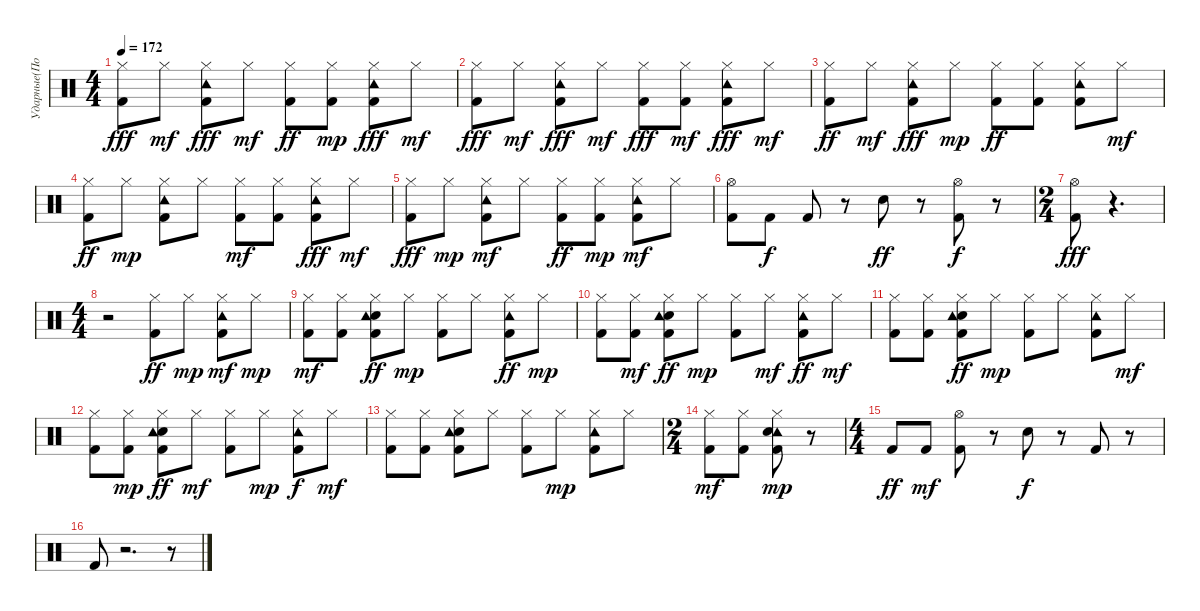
\track ("Ударные(Потапкин)" "Ударные(По") {instrument percussion}
\staff {score}
\articulation defaults
\ts (4 4)
\tempo 172
\clef neutral
\ks c
("Hi-Hat (closed)" "Kick (hit) 2").8{dy fff} "Hi-Hat (closed)".8{dy mf} ("Hi-Hat (closed)" "Kick (hit) 2" "Tambourine (hit)").8{dy fff} "Hi-Hat (closed)".8{dy mf} ("Hi-Hat (closed)" "Kick (hit) 2").8{dy ff} ("Hi-Hat (closed)" "Kick (hit) 2").8{dy mp} ("Hi-Hat (closed)" "Kick (hit) 2" "Tambourine (hit)").8{dy fff} "Hi-Hat (closed)".8{dy mf} |
("Hi-Hat (closed)" "Kick (hit) 2").8{dy fff} "Hi-Hat (closed)".8{dy mf} ("Hi-Hat (closed)" "Kick (hit) 2" "Tambourine (hit)").8{dy fff} "Hi-Hat (closed)".8{dy mf} ("Hi-Hat (closed)" "Kick (hit) 2").8{dy fff} ("Hi-Hat (closed)" "Kick (hit) 2").8{dy mf} ("Hi-Hat (closed)" "Kick (hit) 2" "Tambourine (hit)").8{dy fff} "Hi-Hat (closed)".8{dy mf} |
("Hi-Hat (closed)" "Kick (hit) 2").8{dy ff} "Hi-Hat (closed)".8{dy mf} ("Hi-Hat (closed)" "Kick (hit) 2" "Tambourine (hit)").8{dy fff} "Hi-Hat (closed)".8{dy mp} ("Hi-Hat (closed)" "Kick (hit) 2").8{dy ff} ("Hi-Hat (closed)" "Kick (hit) 2").8 ("Hi-Hat (closed)" "Tambourine (hit)" "Kick (hit) 2").8 "Hi-Hat (closed)".8{dy mf} |
("Hi-Hat (closed)" "Kick (hit) 2").8{dy ff} "Hi-Hat (closed)".8{dy mp} ("Kick (hit) 2" "Tambourine (hit)" "Hi-Hat (closed)").8 "Hi-Hat (closed)".8 ("Kick (hit) 2" "Hi-Hat (closed)").8{dy mf} ("Kick (hit) 2" "Hi-Hat (closed)").8 ("Hi-Hat (closed)" "Kick (hit) 2" "Tambourine (hit)").8{dy fff} "Hi-Hat (closed)".8{dy mf} |
("Hi-Hat (closed)" "Kick (hit) 2").8{dy fff} "Hi-Hat (closed)".8{dy mp} ("Kick (hit) 2" "Tambourine (hit)" "Hi-Hat (closed)").8{dy mf} "Hi-Hat (closed)".8 ("Hi-Hat (closed)" "Kick (hit) 2").8{dy ff} ("Kick (hit) 2" "Hi-Hat (closed)").8{dy mp} ("Kick (hit) 2" "Tambourine (hit)" "Hi-Hat (closed)").8{dy mf} "Hi-Hat (closed)".8 |
("Hi-Hat (open)" "Kick (hit) 2").8 "Kick (hit) 2".8{dy f} "Kick (hit) 2".8 r.8 "Snare (hit) 2".8{dy ff} r.8 ("Hi-Hat (open)" "Kick (hit) 2").8{dy f} r.8 |
\ts (2 4)
("Hi-Hat (open)" "Kick (hit) 2").8{dy fff} r.4{d} |
\ts (4 4)
r.2 ("Hi-Hat (closed)" "Kick (hit) 2").8{dy ff} "Hi-Hat (closed)".8{dy mp} ("Hi-Hat (closed)" "Kick (hit) 2" "Tambourine (hit)").8{dy mf} "Hi-Hat (closed)".8{dy mp} |
("Hi-Hat (closed)" "Kick (hit) 2").8{dy mf} ("Hi-Hat (closed)" "Kick (hit) 2").8 ("Snare (hit) 2" "Hi-Hat (closed)" "Kick (hit) 2" "Tambourine (hit)").8{dy ff} "Hi-Hat (closed)".8{dy mp} ("Hi-Hat (closed)" "Kick (hit) 2").8 "Hi-Hat (closed)".8 ("Hi-Hat (closed)" "Tambourine (hit)" "Kick (hit) 2").8{dy ff} "Hi-Hat (closed)".8{dy mp} |
("Hi-Hat (closed)" "Kick (hit) 2").8 ("Hi-Hat (closed)" "Kick (hit) 2").8{dy mf} ("Snare (hit) 2" "Hi-Hat (closed)" "Kick (hit) 2" "Tambourine (hit)").8{dy ff} "Hi-Hat (closed)".8{dy mp} ("Hi-Hat (closed)" "Kick (hit) 2").8 "Hi-Hat (closed)".8{dy mf} ("Hi-Hat (closed)" "Tambourine (hit)" "Kick (hit) 2").8{dy ff} "Hi-Hat (closed)".8{dy mf} |
("Hi-Hat (closed)" "Kick (hit) 2").8 ("Hi-Hat (closed)" "Kick (hit) 2").8 ("Snare (hit) 2" "Hi-Hat (closed)" "Tambourine (hit)" "Kick (hit) 2").8{dy ff} "Hi-Hat (closed)".8{dy mp} ("Hi-Hat (closed)" "Kick (hit) 2").8 "Hi-Hat (closed)".8 ("Tambourine (hit)" "Kick (hit) 2" "Hi-Hat (closed)").8 "Hi-Hat (closed)".8{dy mf} |
("Kick (hit) 2" "Hi-Hat (closed)").8 ("Kick (hit) 2" "Hi-Hat (closed)").8{dy mp} ("Snare (hit) 2" "Hi-Hat (closed)" "Tambourine (hit)" "Kick (hit) 2").8{dy ff} "Hi-Hat (closed)".8{dy mf} ("Kick (hit) 2" "Hi-Hat (closed)").8 "Hi-Hat (closed)".8{dy mp} ("Tambourine (hit)" "Kick (hit) 2" "Hi-Hat (closed)").8{dy f} "Hi-Hat (closed)".8{dy mf} |
("Kick (hit) 2" "Hi-Hat (closed)").8 ("Kick (hit) 2" "Hi-Hat (closed)").8 ("Snare (hit) 2" "Kick (hit) 2" "Tambourine (hit)" "Hi-Hat (closed)").8 "Hi-Hat (closed)".8 ("Kick (hit) 2" "Hi-Hat (closed)").8 "Hi-Hat (closed)".8{dy mp} ("Tambourine (hit)" "Kick (hit) 2" "Hi-Hat (closed)").8 "Hi-Hat (closed)".8 |
\ts (2 4)
("Kick (hit) 2" "Hi-Hat (closed)").8{dy mf} ("Kick (hit) 2" "Hi-Hat (closed)").8 ("Tambourine (hit)" "Kick (hit) 2" "Hi-Hat (closed)" "Snare (hit) 2").8{dy mp} r.8 |
\ts (4 4)
"Kick (hit) 2".8{dy ff} "Kick (hit) 2".8{dy mf} ("Kick (hit) 2" "Hi-Hat (open)").8 r.8 "Snare (hit) 2".8{dy f} r.8 "Kick (hit) 2".8 r.8 |
"Kick (hit) 2".8 r.2{d} r.8
